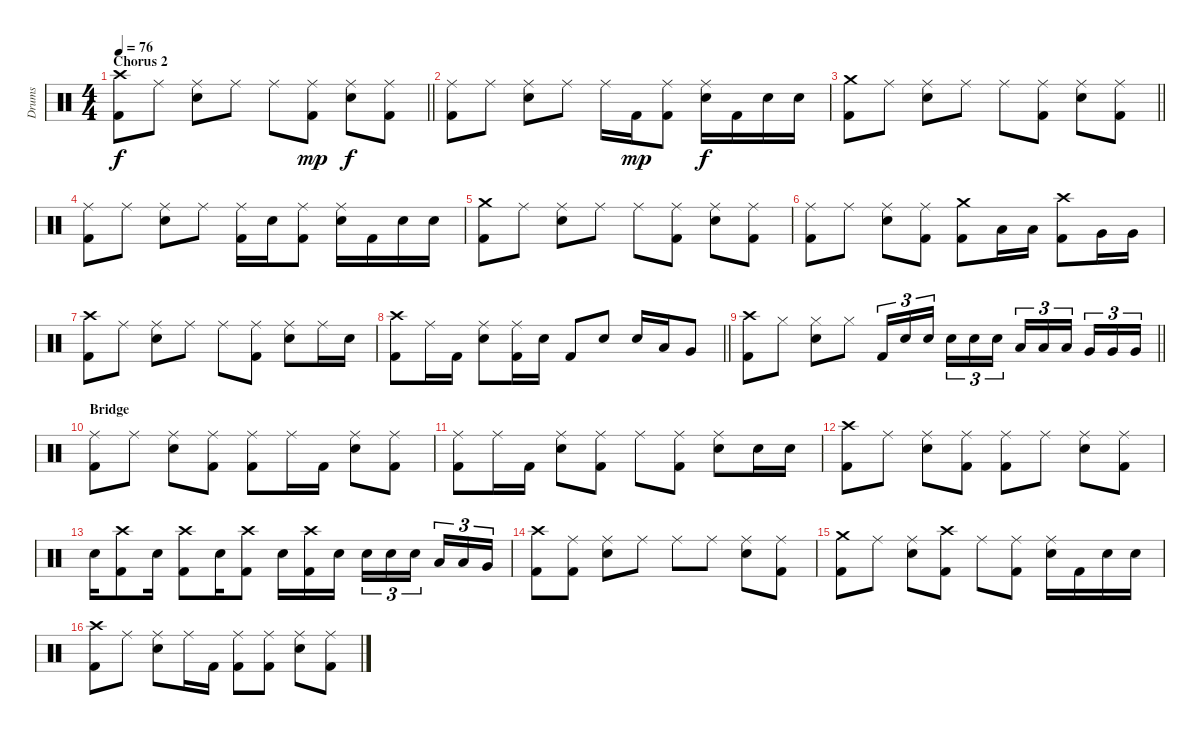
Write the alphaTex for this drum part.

\track ("Drums" "Drums") {instrument percussion}
\staff {score}
\articulation defaults
\ts (4 4)
\section ("" "Chorus 2")
\tempo 76
\clef neutral
\barLineRight lightlight
\ks c
("Crash high (hit)" "Kick (hit) 2").8{dy f} "Ride (middle)".8 ("Ride (middle)" "Snare (hit) 2").8 "Ride (middle)".8 "Ride (middle)".8 ("Ride (middle)" "Kick (hit) 2").8{dy mp} ("Ride (middle)" "Snare (hit) 2").8{dy f} ("Ride (middle)" "Kick (hit) 2").8 |
("Ride (middle)" "Kick (hit) 2").8 "Ride (middle)".8 ("Ride (middle)" "Snare (hit) 2").8 "Ride (middle)".8 "Ride (middle)".16 "Kick (hit) 2".16{dy mp} ("Ride (middle)" "Kick (hit) 2").8 ("Ride (middle)" "Snare (hit) 2").16{dy f} "Kick (hit) 2".16 "Snare (hit) 2".16 "Snare (hit) 2".16 |
\barLineRight lightlight
("Crash medium (hit)" "Kick (hit) 2").8 "Ride (middle)".8 ("Ride (middle)" "Snare (hit) 2").8 "Ride (middle)".8 "Ride (middle)".8 ("Ride (middle)" "Kick (hit) 2").8 ("Ride (middle)" "Snare (hit) 2").8 ("Ride (middle)" "Kick (hit) 2").8 |
("Ride (middle)" "Kick (hit) 2").8 "Ride (middle)".8 ("Ride (middle)" "Snare (hit) 2").8 "Ride (middle)".8 ("Ride (middle)" "Kick (hit) 2").16 "Snare (hit) 2".16 ("Ride (middle)" "Kick (hit) 2").8 ("Ride (middle)" "Snare (hit) 2").16 "Kick (hit) 2".16 "Snare (hit) 2".16 "Snare (hit) 2".16 |
("Crash medium (hit)" "Kick (hit) 2").8 "Ride (middle)".8 ("Ride (middle)" "Snare (hit) 2").8 "Ride (middle)".8 "Ride (middle)".8 ("Ride (middle)" "Kick (hit) 2").8 ("Ride (middle)" "Snare (hit) 2").8 ("Ride (middle)" "Kick (hit) 2").8 |
("Ride (middle)" "Kick (hit) 2").8 "Ride (middle)".8 ("Ride (middle)" "Snare (hit) 2").8 ("Ride (middle)" "Kick (hit) 2").8 ("Crash medium (hit)" "Kick (hit) 2").8 "Low Tom (hit)".16 "Low Tom (hit)".16 ("Crash high (hit)" "Kick (hit) 2").8 "Very Low Tom (hit)".16 "Very Low Tom (hit)".16 |
("Crash high (hit)" "Kick (hit) 2").8 "Ride (middle)".8 ("Ride (middle)" "Snare (hit) 2").8 "Ride (middle)".8 "Ride (middle)".8 ("Ride (middle)" "Kick (hit) 2").8 ("Ride (middle)" "Snare (hit) 2").8 "Ride (middle)".16 "Snare (hit) 2".16 |
\barLineRight lightlight
("Crash high (hit)" "Kick (hit) 2").8 "Ride (middle)".16 "Kick (hit) 2".16 ("Ride (middle)" "Snare (hit) 2").8 ("Ride (middle)" "Kick (hit) 2").16 "Snare (hit) 2".16 "Kick (hit) 2".8 "Snare (hit) 2".8 "Snare (hit) 2".16 "Low Tom (hit)".16 "Very Low Tom (hit)".8 |
\barLineRight lightlight
("Crash high (hit)" "Kick (hit) 2").8 "Hi-Hat (closed)".8 ("Hi-Hat (closed)" "Snare (hit) 2").8 "Hi-Hat (closed)".8 "Kick (hit) 2".16{tu (3 2)} "Snare (hit) 2".16{tu (3 2)} "Snare (hit) 2".16{tu (3 2) beam splitsecondary} "Snare (hit) 2".16{tu (3 2)} "Snare (hit) 2".16{tu (3 2)} "Snare (hit) 2".16{tu (3 2)} "Low Tom (hit)".16{tu (3 2)} "Low Tom (hit)".16{tu (3 2)} "Low Tom (hit)".16{tu (3 2) beam splitsecondary} "Very Low Tom (hit)".16{tu (3 2)} "Very Low Tom (hit)".16{tu (3 2)} "Very Low Tom (hit)".16{tu (3 2)} |
\section ("" "Bridge")
("Ride (middle)" "Kick (hit) 2").8 "Ride (middle)".8 ("Ride (middle)" "Snare (hit) 2").8 ("Ride (middle)" "Kick (hit) 2").8 ("Ride (middle)" "Kick (hit) 2").8 "Ride (middle)".16 "Kick (hit) 2".16 ("Ride (middle)" "Snare (hit) 2").8 ("Ride (middle)" "Kick (hit) 2").8 |
("Ride (middle)" "Kick (hit) 2").8 "Ride (middle)".16 "Kick (hit) 2".16 ("Ride (middle)" "Snare (hit) 2").8 ("Ride (middle)" "Kick (hit) 2").8 "Ride (middle)".8 ("Ride (middle)" "Kick (hit) 2").8 ("Ride (middle)" "Snare (hit) 2").8 "Snare (hit) 2".16 "Snare (hit) 2".16 |
("Crash high (hit)" "Kick (hit) 2").8 "Ride (middle)".8 ("Ride (middle)" "Snare (hit) 2").8 ("Ride (middle)" "Kick (hit) 2").8 ("Ride (middle)" "Kick (hit) 2").8 "Ride (middle)".8 ("Ride (middle)" "Snare (hit) 2").8 ("Ride (middle)" "Kick (hit) 2").8 |
"Snare (hit) 2".16 ("Crash high (hit)" "Kick (hit) 2").8 "Snare (hit) 2".16 ("Crash high (hit)" "Kick (hit) 2").8 "Snare (hit) 2".16 ("Crash high (hit)" "Kick (hit) 2").8 "Snare (hit) 2".16 ("Crash high (hit)" "Kick (hit) 2").16 "Snare (hit) 2".16 "Snare (hit) 2".16{tu (3 2)} "Snare (hit) 2".16{tu (3 2)} "Snare (hit) 2".16{tu (3 2) beam splitsecondary} "Low Tom (hit)".16{tu (3 2)} "Low Tom (hit)".16{tu (3 2)} "Very Low Tom (hit)".16{tu (3 2)} |
("Crash high (hit)" "Kick (hit) 2").8 ("Ride (middle)" "Kick (hit) 2").8 ("Ride (middle)" "Snare (hit) 2").8 "Ride (middle)".8 "Ride (middle)".8 "Ride (middle)".8 ("Ride (middle)" "Snare (hit) 2").8 ("Ride (middle)" "Kick (hit) 2").8 |
("Crash medium (hit)" "Kick (hit) 2").8 "Ride (middle)".8 ("Ride (middle)" "Snare (hit) 2").8 ("Crash high (hit)" "Kick (hit) 2").8 "Ride (middle)".8 ("Ride (middle)" "Kick (hit) 2").8 ("Ride (middle)" "Snare (hit) 2").16 "Kick (hit) 2".16 "Snare (hit) 2".16 "Snare (hit) 2".16 |
("Crash high (hit)" "Kick (hit) 2").8 "Ride (middle)".8 ("Ride (middle)" "Snare (hit) 2").8 "Ride (middle)".16 "Kick (hit) 2".16 ("Ride (middle)" "Kick (hit) 2").8 ("Ride (middle)" "Kick (hit) 2").8 ("Ride (middle)" "Snare (hit) 2").8 ("Ride (middle)" "Kick (hit) 2").8
